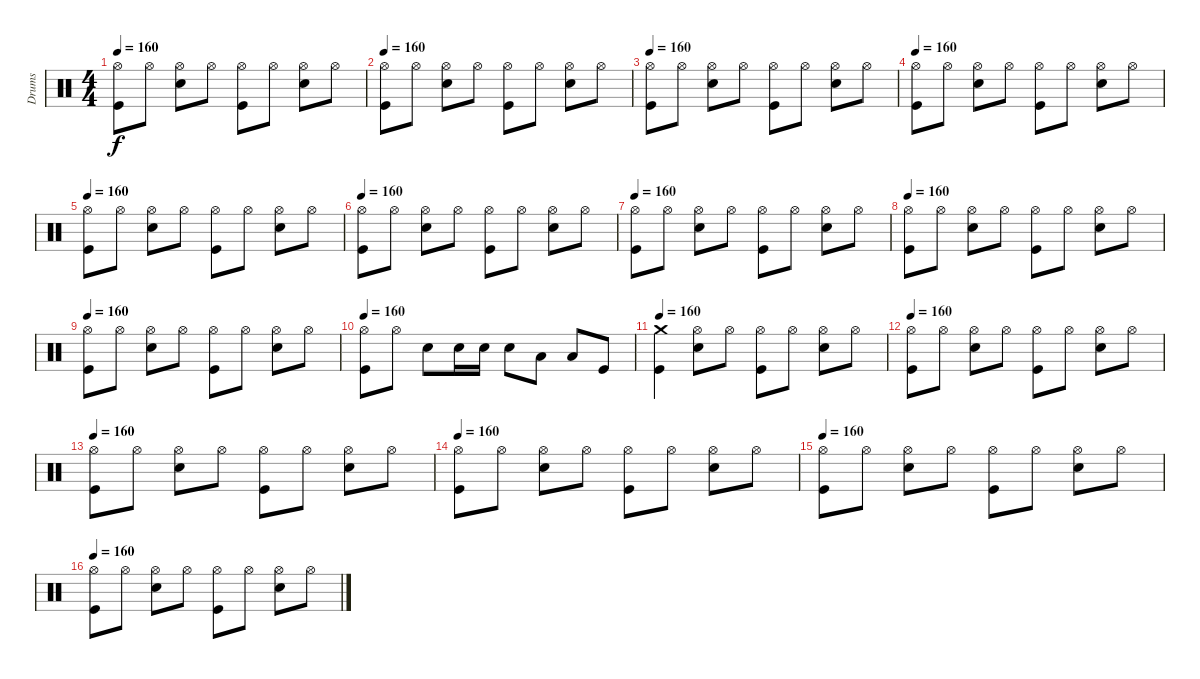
\track ("Drums" "Drums") {instrument percussion}
\staff {score}
\articulation defaults
\ts (4 4)
\tempo 160
\clef neutral
\ks c
("Hi-Hat (open)" "Kick (hit)").8{dy f} "Hi-Hat (open)".8 ("Hi-Hat (open)" "Snare (hit) 2").8 "Hi-Hat (open)".8 ("Hi-Hat (open)" "Kick (hit)").8 "Hi-Hat (open)".8 ("Hi-Hat (open)" "Snare (hit) 2").8 "Hi-Hat (open)".8 |
\tempo 160
("Hi-Hat (open)" "Kick (hit)").8 "Hi-Hat (open)".8 ("Hi-Hat (open)" "Snare (hit) 2").8 "Hi-Hat (open)".8 ("Hi-Hat (open)" "Kick (hit)").8 "Hi-Hat (open)".8 ("Hi-Hat (open)" "Snare (hit) 2").8 "Hi-Hat (open)".8 |
\tempo 160
("Hi-Hat (open)" "Kick (hit)").8 "Hi-Hat (open)".8 ("Hi-Hat (open)" "Snare (hit) 2").8 "Hi-Hat (open)".8 ("Hi-Hat (open)" "Kick (hit)").8 "Hi-Hat (open)".8 ("Hi-Hat (open)" "Snare (hit) 2").8 "Hi-Hat (open)".8 |
\tempo 160
("Hi-Hat (open)" "Kick (hit)").8 "Hi-Hat (open)".8 ("Hi-Hat (open)" "Snare (hit) 2").8 "Hi-Hat (open)".8 ("Hi-Hat (open)" "Kick (hit)").8 "Hi-Hat (open)".8 ("Hi-Hat (open)" "Snare (hit) 2").8 "Hi-Hat (open)".8 |
\tempo 160
("Hi-Hat (open)" "Kick (hit)").8 "Hi-Hat (open)".8 ("Hi-Hat (open)" "Snare (hit) 2").8 "Hi-Hat (open)".8 ("Hi-Hat (open)" "Kick (hit)").8 "Hi-Hat (open)".8 ("Hi-Hat (open)" "Snare (hit) 2").8 "Hi-Hat (open)".8 |
\tempo 160
("Hi-Hat (open)" "Kick (hit)").8 "Hi-Hat (open)".8 ("Hi-Hat (open)" "Snare (hit) 2").8 "Hi-Hat (open)".8 ("Hi-Hat (open)" "Kick (hit)").8 "Hi-Hat (open)".8 ("Hi-Hat (open)" "Snare (hit) 2").8 "Hi-Hat (open)".8 |
\tempo 160
("Hi-Hat (open)" "Kick (hit)").8 "Hi-Hat (open)".8 ("Hi-Hat (open)" "Snare (hit) 2").8 "Hi-Hat (open)".8 ("Hi-Hat (open)" "Kick (hit)").8 "Hi-Hat (open)".8 ("Hi-Hat (open)" "Snare (hit) 2").8 "Hi-Hat (open)".8 |
\tempo 160
("Hi-Hat (open)" "Kick (hit)").8 "Hi-Hat (open)".8 ("Hi-Hat (open)" "Snare (hit) 2").8 "Hi-Hat (open)".8 ("Hi-Hat (open)" "Kick (hit)").8 "Hi-Hat (open)".8 ("Hi-Hat (open)" "Snare (hit) 2").8 "Hi-Hat (open)".8 |
\tempo 160
("Hi-Hat (open)" "Kick (hit)").8 "Hi-Hat (open)".8 ("Hi-Hat (open)" "Snare (hit) 2").8 "Hi-Hat (open)".8 ("Hi-Hat (open)" "Kick (hit)").8 "Hi-Hat (open)".8 ("Hi-Hat (open)" "Snare (hit) 2").8 "Hi-Hat (open)".8 |
\tempo 160
("Hi-Hat (open)" "Kick (hit)").8 "Hi-Hat (open)".8 "Snare (hit) 2".8 "Snare (hit) 2".16 "Snare (hit) 2".16 "Snare (hit) 2".8 "Low Tom (hit)".8 "Low Tom (hit)".8 "Kick (hit)".8 |
\tempo 160
("Kick (hit)" "Crash medium (hit)").4 ("Snare (hit) 2" "Hi-Hat (open)").8 "Hi-Hat (open)".8 ("Kick (hit)" "Hi-Hat (open)").8 "Hi-Hat (open)".8 ("Snare (hit) 2" "Hi-Hat (open)").8 "Hi-Hat (open)".8 |
\tempo 160
("Hi-Hat (open)" "Kick (hit)").8 "Hi-Hat (open)".8 ("Hi-Hat (open)" "Snare (hit) 2").8 "Hi-Hat (open)".8 ("Hi-Hat (open)" "Kick (hit)").8 "Hi-Hat (open)".8 ("Hi-Hat (open)" "Snare (hit) 2").8 "Hi-Hat (open)".8 |
\tempo 160
("Hi-Hat (open)" "Kick (hit)").8 "Hi-Hat (open)".8 ("Hi-Hat (open)" "Snare (hit) 2").8 "Hi-Hat (open)".8 ("Hi-Hat (open)" "Kick (hit)").8 "Hi-Hat (open)".8 ("Hi-Hat (open)" "Snare (hit) 2").8 "Hi-Hat (open)".8 |
\tempo 160
("Hi-Hat (open)" "Kick (hit)").8 "Hi-Hat (open)".8 ("Hi-Hat (open)" "Snare (hit) 2").8 "Hi-Hat (open)".8 ("Hi-Hat (open)" "Kick (hit)").8 "Hi-Hat (open)".8 ("Hi-Hat (open)" "Snare (hit) 2").8 "Hi-Hat (open)".8 |
\tempo 160
("Hi-Hat (open)" "Kick (hit)").8 "Hi-Hat (open)".8 ("Hi-Hat (open)" "Snare (hit) 2").8 "Hi-Hat (open)".8 ("Hi-Hat (open)" "Kick (hit)").8 "Hi-Hat (open)".8 ("Hi-Hat (open)" "Snare (hit) 2").8 "Hi-Hat (open)".8 |
\tempo 160
("Hi-Hat (open)" "Kick (hit)").8 "Hi-Hat (open)".8 ("Hi-Hat (open)" "Snare (hit) 2").8 "Hi-Hat (open)".8 ("Hi-Hat (open)" "Kick (hit)").8 "Hi-Hat (open)".8 ("Hi-Hat (open)" "Snare (hit) 2").8 "Hi-Hat (open)".8
